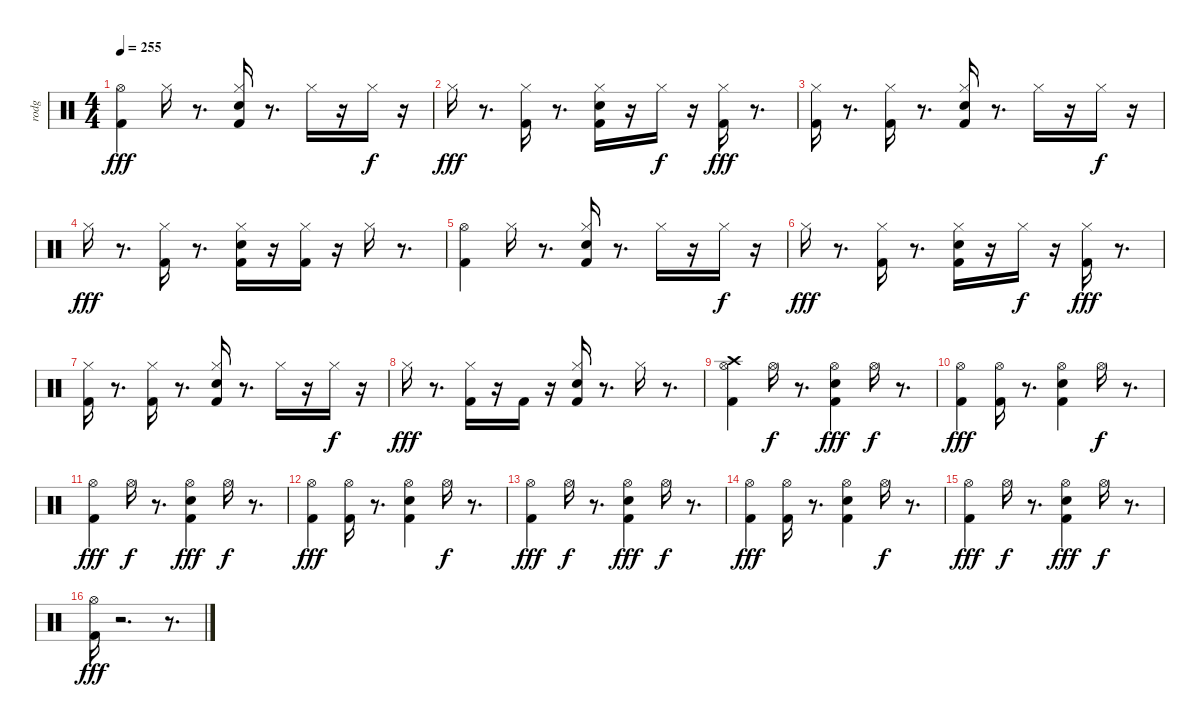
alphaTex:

\track ("rodg" "rodg") {instrument percussion}
\staff {score}
\articulation defaults
\ts (4 4)
\tempo 255
\clef neutral
\ks c
("Hi-Hat (open)" "Kick (hit) 2").4{dy fff} "Hi-Hat (closed)".16 r.8{d} ("Kick (hit) 2" "Electric Snare (hit)" "Hi-Hat (closed)").16 r.8{d} "Hi-Hat (closed)".16 r.16 "Hi-Hat (closed)".16{dy f} r.16 |
"Hi-Hat (closed)".16{dy fff} r.8{d} ("Kick (hit) 2" "Hi-Hat (closed)").16 r.8{d} ("Kick (hit) 2" "Electric Snare (hit)" "Hi-Hat (closed)").16 r.16 "Hi-Hat (closed)".16{dy f} r.16 ("Kick (hit) 2" "Hi-Hat (closed)").16{dy fff} r.8{d} |
("Kick (hit) 2" "Hi-Hat (closed)").16 r.8{d} ("Hi-Hat (closed)" "Kick (hit) 2").16 r.8{d} ("Kick (hit) 2" "Electric Snare (hit)" "Hi-Hat (closed)").16 r.8{d} "Hi-Hat (closed)".16 r.16 "Hi-Hat (closed)".16{dy f} r.16 |
"Hi-Hat (closed)".16{dy fff} r.8{d} ("Kick (hit) 2" "Hi-Hat (closed)").16 r.8{d} ("Kick (hit) 2" "Electric Snare (hit)" "Hi-Hat (closed)").16 r.16 ("Hi-Hat (closed)" "Kick (hit) 2").16 r.16 "Hi-Hat (closed)".16 r.8{d} |
("Hi-Hat (open)" "Kick (hit) 2").4 "Hi-Hat (closed)".16 r.8{d} ("Kick (hit) 2" "Electric Snare (hit)" "Hi-Hat (closed)").16 r.8{d} "Hi-Hat (closed)".16 r.16 "Hi-Hat (closed)".16{dy f} r.16 |
"Hi-Hat (closed)".16{dy fff} r.8{d} ("Kick (hit) 2" "Hi-Hat (closed)").16 r.8{d} ("Kick (hit) 2" "Electric Snare (hit)" "Hi-Hat (closed)").16 r.16 "Hi-Hat (closed)".16{dy f} r.16 ("Kick (hit) 2" "Hi-Hat (closed)").16{dy fff} r.8{d} |
("Kick (hit) 2" "Hi-Hat (closed)").16 r.8{d} ("Hi-Hat (closed)" "Kick (hit) 2").16 r.8{d} ("Kick (hit) 2" "Electric Snare (hit)" "Hi-Hat (closed)").16 r.8{d} "Hi-Hat (closed)".16 r.16 "Hi-Hat (closed)".16{dy f} r.16 |
"Hi-Hat (closed)".16{dy fff} r.8{d} ("Kick (hit) 2" "Hi-Hat (closed)").16 r.16 "Kick (hit) 2".16 r.16 ("Kick (hit) 2" "Electric Snare (hit)" "Hi-Hat (closed)").16 r.8{d} "Hi-Hat (closed)".16 r.8{d} |
("Hi-Hat (open)" "Kick (hit) 2" "Crash high (hit)").4 "Hi-Hat (open)".16{dy f} r.8{d} ("Hi-Hat (open)" "Electric Snare (hit)" "Kick (hit) 2").4{dy fff} "Hi-Hat (open)".16{dy f} r.8{d} |
("Hi-Hat (open)" "Kick (hit) 2").4{dy fff} ("Hi-Hat (open)" "Kick (hit) 2").16 r.8{d} ("Hi-Hat (open)" "Electric Snare (hit)" "Kick (hit) 2").4 "Hi-Hat (open)".16{dy f} r.8{d} |
("Kick (hit) 2" "Hi-Hat (open)").4{dy fff} "Hi-Hat (open)".16{dy f} r.8{d} ("Hi-Hat (open)" "Electric Snare (hit)" "Kick (hit) 2").4{dy fff} "Hi-Hat (open)".16{dy f} r.8{d} |
("Hi-Hat (open)" "Kick (hit) 2").4{dy fff} ("Hi-Hat (open)" "Kick (hit) 2").16 r.8{d} ("Hi-Hat (open)" "Electric Snare (hit)" "Kick (hit) 2").4 "Hi-Hat (open)".16{dy f} r.8{d} |
("Kick (hit) 2" "Hi-Hat (open)").4{dy fff} "Hi-Hat (open)".16{dy f} r.8{d} ("Hi-Hat (open)" "Electric Snare (hit)" "Kick (hit) 2").4{dy fff} "Hi-Hat (open)".16{dy f} r.8{d} |
("Hi-Hat (open)" "Kick (hit) 2").4{dy fff} ("Hi-Hat (open)" "Kick (hit) 2").16 r.8{d} ("Hi-Hat (open)" "Electric Snare (hit)" "Kick (hit) 2").4 "Hi-Hat (open)".16{dy f} r.8{d} |
("Kick (hit) 2" "Hi-Hat (open)").4{dy fff} "Hi-Hat (open)".16{dy f} r.8{d} ("Hi-Hat (open)" "Electric Snare (hit)" "Kick (hit) 2").4{dy fff} "Hi-Hat (open)".16{dy f} r.8{d} |
("Kick (hit) 2" "Hi-Hat (open)").16{dy fff} r.2{d} r.8{d}
